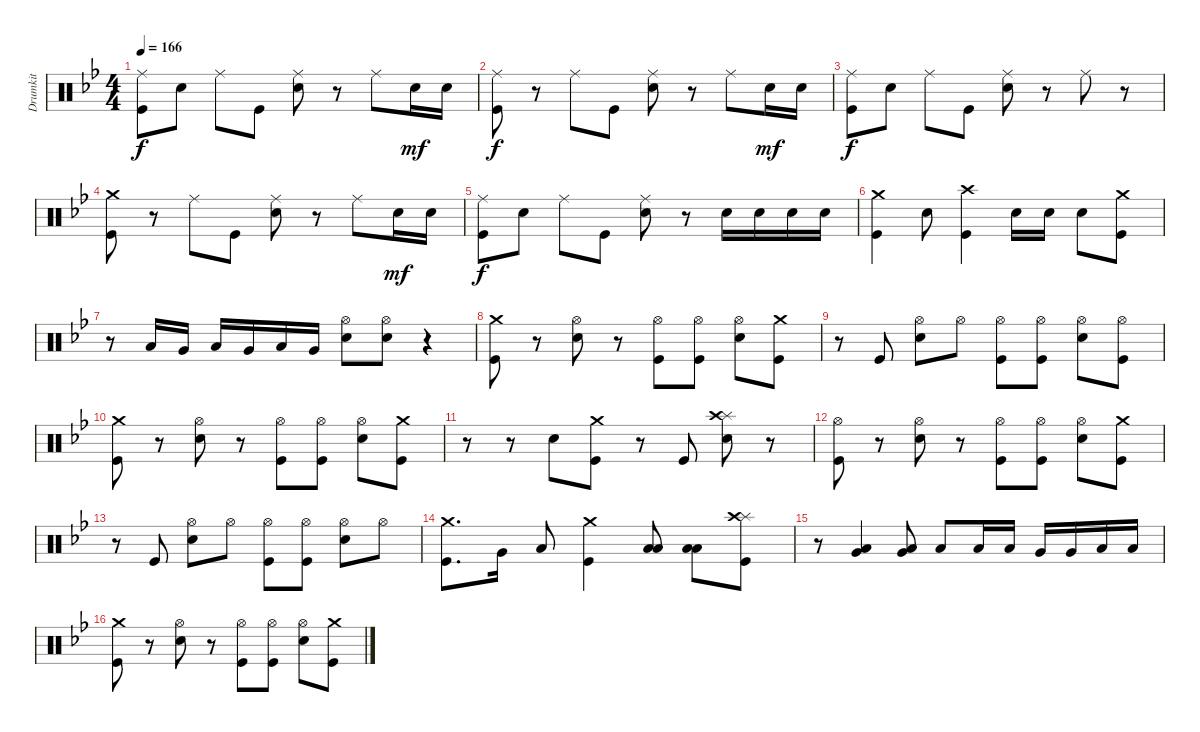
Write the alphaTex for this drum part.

\track ("Drumkit" "Drumkit") {instrument percussion}
\staff {score}
\articulation defaults
\ts (4 4)
\tempo 166
\clef neutral
\ks gminor
("Ride (middle)" "Kick (hit)").8{dy f} "Snare (hit) 2".8 "Ride (middle)".8 "Kick (hit)".8 ("Ride (middle)" "Snare (hit) 2").8 r.8 "Ride (middle)".8 "Snare (hit) 2".16{dy mf} "Snare (hit) 2".16 |
("Kick (hit)" "Ride (middle)").8{dy f} r.8 "Ride (middle)".8 "Kick (hit)".8 ("Ride (middle)" "Snare (hit) 2").8 r.8 "Ride (middle)".8 "Snare (hit) 2".16{dy mf} "Snare (hit) 2".16 |
("Ride (middle)" "Kick (hit)").8{dy f} "Snare (hit) 2".8 "Ride (middle)".8 "Kick (hit)".8 ("Ride (middle)" "Snare (hit) 2").8 r.8 "Ride (middle)".8 r.8 |
("Crash medium (hit)" "Kick (hit)").8 r.8 "Ride (middle)".8 "Kick (hit)".8 ("Ride (middle)" "Snare (hit) 2").8 r.8 "Ride (middle)".8 "Snare (hit) 2".16{dy mf} "Snare (hit) 2".16 |
("Ride (middle)" "Kick (hit)").8{dy f} "Snare (hit) 2".8 "Ride (middle)".8 "Kick (hit)".8 ("Ride (middle)" "Snare (hit) 2").8 r.8 "Snare (hit) 2".16 "Snare (hit) 2".16 "Snare (hit) 2".16 "Snare (hit) 2".16 |
("Kick (hit)" "Crash medium (hit)").4 "Snare (hit) 2".8 ("Kick (hit)" "Crash high (hit)").4 "Snare (hit) 2".16 "Snare (hit) 2".16 "Snare (hit) 2".8 ("Kick (hit)" "Crash medium (hit)").8 |
r.8 "Low Floor Tom (hit)".16 "Very Low Tom (hit)".16 "Low Floor Tom (hit)".16 "Very Low Tom (hit)".16 "Low Floor Tom (hit)".16 "Very Low Tom (hit)".16 ("Snare (hit) 2" "Hi-Hat (open)").8 ("Snare (hit) 2" "Hi-Hat (open)").8 r.4 |
("Kick (hit)" "Crash medium (hit)").8 r.8 ("Snare (hit) 2" "Hi-Hat (open)").8 r.8 ("Kick (hit)" "Hi-Hat (open)").8 ("Kick (hit)" "Hi-Hat (open)").8 ("Snare (hit) 2" "Hi-Hat (open)").8 ("Kick (hit)" "Crash medium (hit)").8 |
r.8 "Kick (hit)".8 ("Snare (hit) 2" "Hi-Hat (open)").8 "Hi-Hat (open)".8 ("Kick (hit)" "Hi-Hat (open)").8 ("Kick (hit)" "Hi-Hat (open)").8 ("Snare (hit) 2" "Hi-Hat (open)").8 ("Kick (hit)" "Hi-Hat (open)").8 |
("Kick (hit)" "Crash medium (hit)").8 r.8 ("Snare (hit) 2" "Hi-Hat (open)").8 r.8 ("Kick (hit)" "Hi-Hat (open)").8 ("Kick (hit)" "Hi-Hat (open)").8 ("Snare (hit) 2" "Hi-Hat (open)").8 ("Kick (hit)" "Crash medium (hit)").8 |
r.8 r.8 "Snare (hit) 2".8 ("Kick (hit)" "Crash medium (hit)").8 r.8 "Kick (hit)".8 ("Snare (hit) 2" "Splash (hit)" "Crash high (hit)").8 r.8 |
("Kick (hit)" "Hi-Hat (open)").8 r.8 ("Snare (hit) 2" "Hi-Hat (open)").8 r.8 ("Kick (hit)" "Hi-Hat (open)").8 ("Kick (hit)" "Hi-Hat (open)").8 ("Snare (hit) 2" "Hi-Hat (open)").8 ("Kick (hit)" "Crash medium (hit)").8 |
r.8 "Kick (hit)".8 ("Snare (hit) 2" "Hi-Hat (open)").8 "Hi-Hat (open)".8 ("Kick (hit)" "Hi-Hat (open)").8 ("Kick (hit)" "Hi-Hat (open)").8 ("Snare (hit) 2" "Hi-Hat (open)").8 "Hi-Hat (open)".8 |
("Kick (hit)" "Crash medium (hit)").8{d} "Very Low Tom (hit)".16 "Low Floor Tom (hit)".8 ("Kick (hit)" "Crash medium (hit)").4 ("Low Floor Tom (hit)" "Low Tom (hit)").8 ("Low Floor Tom (hit)" "Low Tom (hit)").8 ("Kick (hit)" "Splash (hit)" "Crash high (hit)").8 |
r.8 ("Low Tom (hit)" "Very Low Tom (hit)").4 ("Low Floor Tom (hit)" "Very Low Tom (hit)").8 "Low Floor Tom (hit)".8 "Low Tom (hit)".16 "Low Tom (hit)".16 "Very Low Tom (hit)".16 "Very Low Tom (hit)".16 "Low Floor Tom (hit)".16 "Low Floor Tom (hit)".16 |
("Kick (hit)" "Crash medium (hit)").8 r.8 ("Snare (hit) 2" "Hi-Hat (open)").8 r.8 ("Kick (hit)" "Hi-Hat (open)").8 ("Kick (hit)" "Hi-Hat (open)").8 ("Snare (hit) 2" "Hi-Hat (open)").8 ("Kick (hit)" "Crash medium (hit)").8
